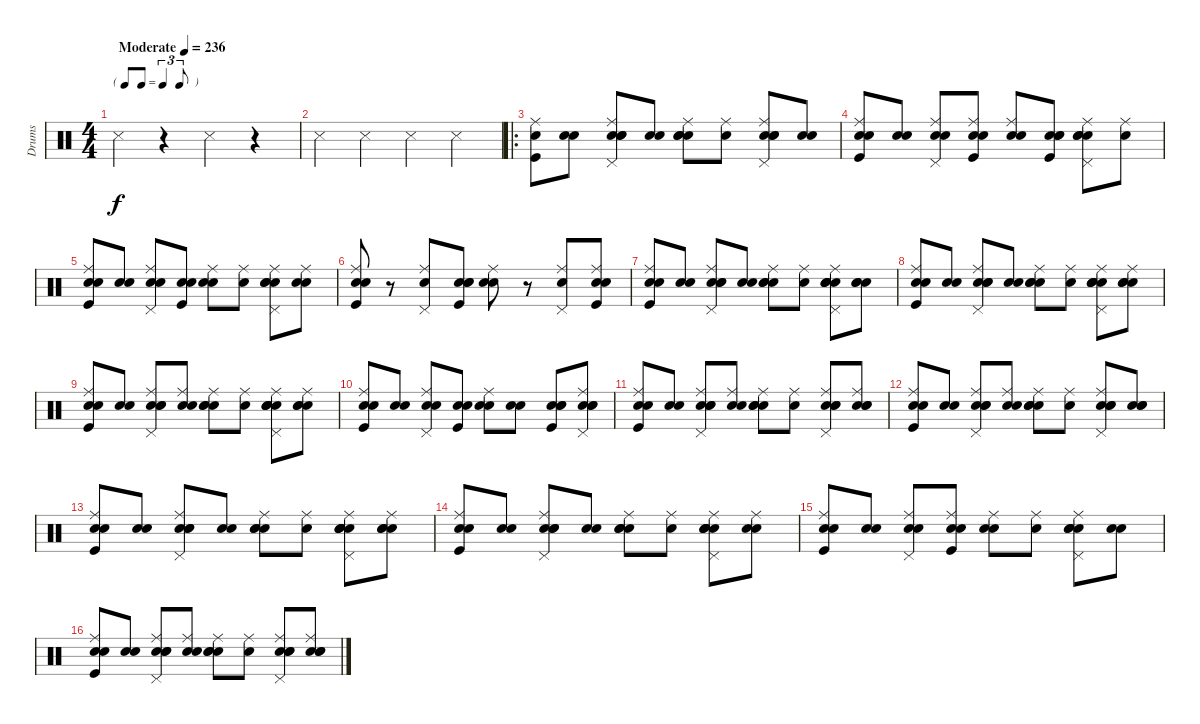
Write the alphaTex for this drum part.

\track ("Drums" "Drums") {instrument percussion}
\staff {score}
\articulation defaults
\ts (4 4)
\tf triplet8th
\tempo (236 "Moderate")
\clef neutral
\ks c "Snare (side stick) 3".4{dy f}
r.4 "Snare (side stick) 3".4 r.4 |
"Snare (side stick) 3".4 "Snare (side stick) 3".4 "Snare (side stick) 3".4 "Snare (side stick) 3".4 |
\ro
("Kick (hit)" "Electric Snare (hit)" "Ride (middle)").8 ("Snare (hit)" "Electric Snare (hit)").8 ("Snare (hit)" "Snare (hit) 2" "Electric Snare (hit)" "Ride (middle)" "Pedal Hi-Hat (hit)").8 ("Snare (hit)" "Snare (hit) 2").8 ("Snare (hit)" "Snare (hit) 2" "Electric Snare (hit)" "Ride (middle)").8 ("Snare (hit)" "Ride (middle)").8 ("Snare (hit)" "Snare (hit) 2" "Electric Snare (hit)" "Ride (middle)" "Pedal Hi-Hat (hit)").8 ("Snare (hit)" "Snare (hit) 2").8 |
("Snare (hit)" "Kick (hit)" "Electric Snare (hit)" "Ride (middle)").8 ("Snare (hit)" "Electric Snare (hit)").8 ("Snare (hit)" "Snare (hit) 2" "Ride (middle)" "Pedal Hi-Hat (hit)").8 ("Snare (hit)" "Kick (hit)" "Snare (hit) 2" "Ride (middle)").8 ("Snare (hit)" "Electric Snare (hit)" "Ride (middle)").8 ("Snare (hit)" "Kick (hit)" "Electric Snare (hit)" "Hand Clap (hit)").8 ("Snare (hit)" "Electric Snare (hit)" "Ride (middle)" "Pedal Hi-Hat (hit)" "Hand Clap (hit)").8 ("Snare (hit)" "Ride (middle)").8 |
("Snare (hit)" "Kick (hit)" "Electric Snare (hit)" "Ride (middle)").8 ("Snare (hit)" "Electric Snare (hit)").8 ("Snare (hit)" "Snare (hit) 2" "Ride (middle)" "Pedal Hi-Hat (hit)").8 ("Snare (hit)" "Kick (hit)" "Hand Clap (hit)").8 ("Snare (hit)" "Electric Snare (hit)" "Ride (middle)").8 ("Snare (hit)" "Ride (middle)").8 ("Snare (hit)" "Snare (hit) 2" "Ride (middle)" "Pedal Hi-Hat (hit)" "Hand Clap (hit)").8 ("Snare (hit)" "Snare (hit) 2" "Ride (middle)").8 |
("Snare (hit)" "Kick (hit)" "Electric Snare (hit)" "Ride (middle)").8 r.8 ("Snare (hit) 2" "Ride (middle)" "Pedal Hi-Hat (hit)").8 ("Snare (hit)" "Kick (hit)" "Snare (hit) 2" "Hand Clap (hit)").8 ("Snare (hit)" "Electric Snare (hit)" "Ride (middle)").8 r.8 ("Snare (hit) 2" "Ride (middle)" "Pedal Hi-Hat (hit)").8 ("Snare (hit)" "Kick (hit)" "Ride (middle)" "Hand Clap (hit)").8 |
("Snare (hit)" "Kick (hit)" "Electric Snare (hit)" "Ride (middle)").8 ("Snare (hit)" "Electric Snare (hit)").8 ("Snare (hit)" "Snare (hit) 2" "Electric Snare (hit)" "Ride (middle)" "Pedal Hi-Hat (hit)").8 ("Snare (hit)" "Snare (hit) 2").8 ("Snare (hit)" "Snare (hit) 2" "Electric Snare (hit)" "Ride (middle)").8 ("Snare (hit)" "Ride (middle)").8 ("Snare (hit)" "Snare (hit) 2" "Electric Snare (hit)" "Ride (middle)" "Pedal Hi-Hat (hit)" "Hand Clap (hit)").8 ("Snare (hit)" "Snare (hit) 2" "Hand Clap (hit)").8 |
("Snare (hit)" "Kick (hit)" "Electric Snare (hit)" "Ride (middle)").8 ("Snare (hit)" "Electric Snare (hit)").8 ("Snare (hit)" "Snare (hit) 2" "Electric Snare (hit)" "Ride (middle)" "Pedal Hi-Hat (hit)").8 ("Snare (hit)" "Snare (hit) 2").8 ("Snare (hit)" "Snare (hit) 2" "Electric Snare (hit)" "Ride (middle)").8 ("Snare (hit)" "Ride (middle)").8 ("Snare (hit)" "Snare (hit) 2" "Electric Snare (hit)" "Ride (middle)" "Pedal Hi-Hat (hit)" "Hand Clap (hit)").8 ("Snare (hit)" "Snare (hit) 2" "Ride (middle)" "Hand Clap (hit)").8 |
("Snare (hit)" "Kick (hit)" "Electric Snare (hit)" "Ride (middle)").8 ("Snare (hit)" "Electric Snare (hit)").8 ("Snare (hit)" "Snare (hit) 2" "Electric Snare (hit)" "Ride (middle)" "Pedal Hi-Hat (hit)").8 ("Snare (hit)" "Snare (hit) 2" "Ride (middle)").8 ("Snare (hit)" "Snare (hit) 2" "Electric Snare (hit)" "Ride (middle)").8 ("Snare (hit)" "Ride (middle)").8 ("Snare (hit)" "Snare (hit) 2" "Electric Snare (hit)" "Ride (middle)" "Pedal Hi-Hat (hit)" "Hand Clap (hit)").8 ("Snare (hit)" "Snare (hit) 2" "Ride (middle)" "Hand Clap (hit)").8 |
("Snare (hit)" "Kick (hit)" "Electric Snare (hit)" "Ride (middle)").8 ("Snare (hit)" "Electric Snare (hit)").8 ("Snare (hit)" "Snare (hit) 2" "Ride (middle)" "Pedal Hi-Hat (hit)").8 ("Snare (hit)" "Kick (hit)" "Hand Clap (hit)").8 ("Snare (hit)" "Electric Snare (hit)" "Ride (middle)").8 ("Snare (hit)" "Snare (hit) 2").8 ("Snare (hit)" "Kick (hit)" "Electric Snare (hit)" "Hand Clap (hit)").8 ("Snare (hit)" "Electric Snare (hit)" "Ride (middle)" "Pedal Hi-Hat (hit)" "Hand Clap (hit)").8 |
("Snare (hit)" "Kick (hit)" "Electric Snare (hit)" "Ride (middle)").8 ("Snare (hit)" "Electric Snare (hit)").8 ("Snare (hit)" "Snare (hit) 2" "Electric Snare (hit)" "Ride (middle)" "Pedal Hi-Hat (hit)").8 ("Snare (hit)" "Snare (hit) 2" "Ride (middle)").8 ("Snare (hit)" "Snare (hit) 2" "Electric Snare (hit)" "Ride (middle)").8 ("Snare (hit)" "Ride (middle)").8 ("Snare (hit)" "Snare (hit) 2" "Electric Snare (hit)" "Ride (middle)" "Pedal Hi-Hat (hit)").8 ("Snare (hit)" "Snare (hit) 2" "Ride (middle)" "Hand Clap (hit)").8 |
("Snare (hit)" "Kick (hit)" "Electric Snare (hit)" "Ride (middle)").8 ("Snare (hit)" "Electric Snare (hit)").8 ("Snare (hit)" "Snare (hit) 2" "Electric Snare (hit)" "Ride (middle)" "Pedal Hi-Hat (hit)").8 ("Snare (hit)" "Snare (hit) 2" "Ride (middle)").8 ("Snare (hit)" "Snare (hit) 2" "Electric Snare (hit)" "Ride (middle)").8 ("Snare (hit)" "Ride (middle)").8 ("Snare (hit)" "Snare (hit) 2" "Electric Snare (hit)" "Ride (middle)" "Pedal Hi-Hat (hit)").8 ("Snare (hit)" "Snare (hit) 2" "Hand Clap (hit)").8 |
("Snare (hit)" "Kick (hit)" "Electric Snare (hit)" "Ride (middle)").8 ("Snare (hit)" "Electric Snare (hit)").8 ("Snare (hit)" "Snare (hit) 2" "Electric Snare (hit)" "Ride (middle)" "Pedal Hi-Hat (hit)").8 ("Snare (hit)" "Snare (hit) 2").8 ("Snare (hit)" "Snare (hit) 2" "Electric Snare (hit)" "Ride (middle)").8 ("Snare (hit)" "Ride (middle)").8 ("Snare (hit)" "Snare (hit) 2" "Electric Snare (hit)" "Ride (middle)" "Pedal Hi-Hat (hit)" "Hand Clap (hit)").8 ("Snare (hit)" "Snare (hit) 2" "Ride (middle)" "Hand Clap (hit)").8 |
("Snare (hit)" "Kick (hit)" "Electric Snare (hit)" "Ride (middle)").8 ("Snare (hit)" "Electric Snare (hit)").8 ("Snare (hit)" "Snare (hit) 2" "Electric Snare (hit)" "Ride (middle)" "Pedal Hi-Hat (hit)").8 ("Snare (hit)" "Snare (hit) 2").8 ("Snare (hit)" "Snare (hit) 2" "Electric Snare (hit)" "Ride (middle)").8 ("Snare (hit)" "Ride (middle)").8 ("Snare (hit)" "Snare (hit) 2" "Electric Snare (hit)" "Ride (middle)" "Pedal Hi-Hat (hit)" "Hand Clap (hit)").8 ("Snare (hit)" "Snare (hit) 2" "Ride (middle)").8 |
("Snare (hit)" "Kick (hit)" "Electric Snare (hit)" "Ride (middle)").8 ("Snare (hit)" "Electric Snare (hit)").8 ("Snare (hit)" "Snare (hit) 2" "Ride (middle)" "Pedal Hi-Hat (hit)").8 ("Snare (hit)" "Kick (hit)" "Snare (hit) 2" "Ride (middle)").8 ("Snare (hit)" "Electric Snare (hit)" "Ride (middle)").8 ("Snare (hit)" "Ride (middle)").8 ("Snare (hit)" "Snare (hit) 2" "Ride (middle)" "Pedal Hi-Hat (hit)" "Hand Clap (hit)").8 ("Snare (hit)" "Hand Clap (hit)").8 |
("Snare (hit)" "Kick (hit)" "Electric Snare (hit)" "Ride (middle)").8 ("Snare (hit)" "Electric Snare (hit)").8 ("Snare (hit)" "Snare (hit) 2" "Electric Snare (hit)" "Ride (middle)" "Pedal Hi-Hat (hit)").8 ("Snare (hit)" "Snare (hit) 2" "Ride (middle)").8 ("Snare (hit)" "Snare (hit) 2" "Electric Snare (hit)" "Ride (middle)").8 ("Snare (hit)" "Ride (middle)").8 ("Snare (hit)" "Snare (hit) 2" "Electric Snare (hit)" "Ride (middle)" "Pedal Hi-Hat (hit)").8 ("Snare (hit)" "Snare (hit) 2" "Ride (middle)" "Hand Clap (hit)").8
